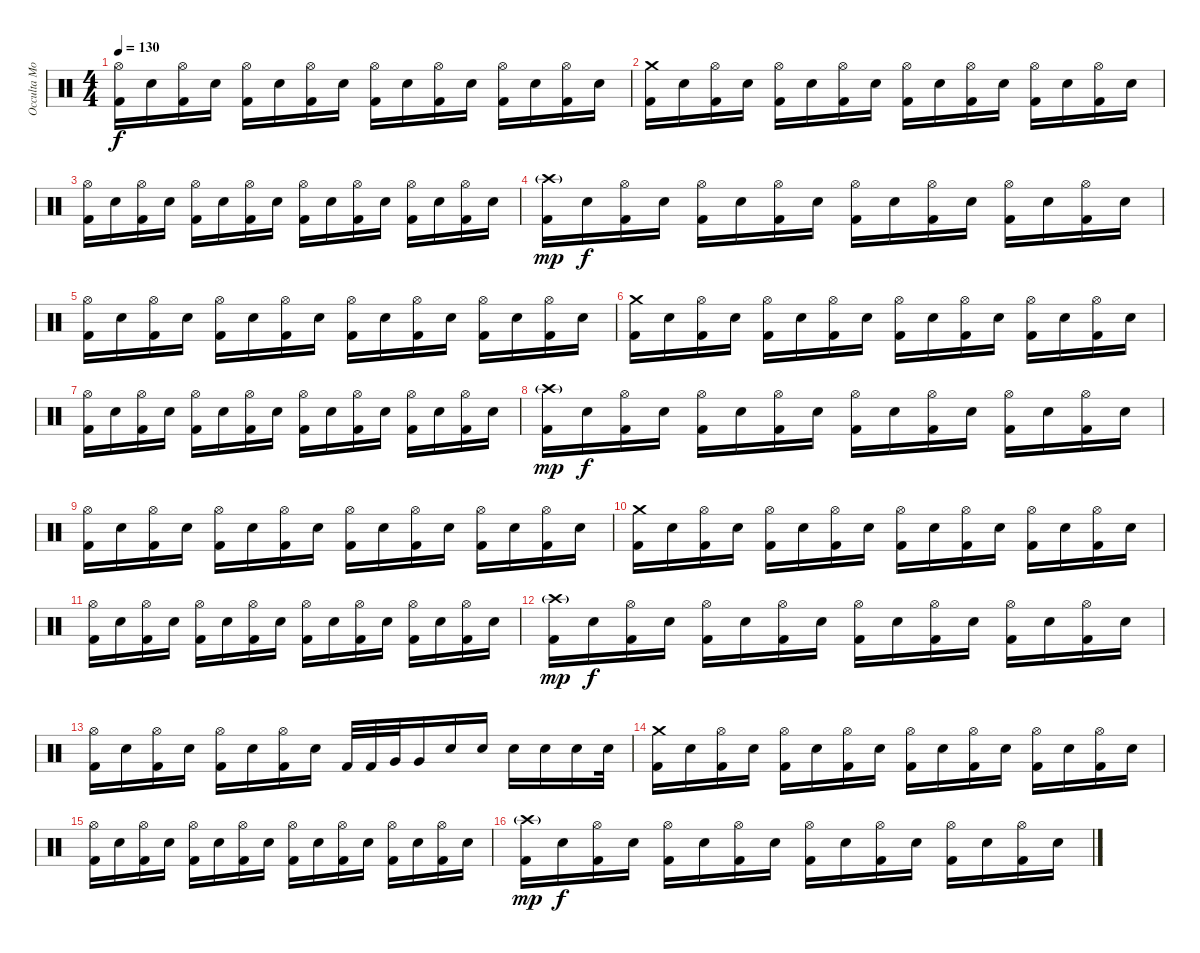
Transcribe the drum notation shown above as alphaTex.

\track ("Occulta Mors" "Occulta Mo") {instrument percussion}
\staff {score}
\articulation defaults
\ts (4 4)
\tempo 130
\clef neutral
\ks c
("Hi-Hat (open)" "Kick (hit) 2").16{dy f} "Snare (hit) 2".16 ("Hi-Hat (open)" "Kick (hit) 2").16 "Snare (hit) 2".16 ("Hi-Hat (open)" "Kick (hit) 2").16 "Snare (hit) 2".16 ("Hi-Hat (open)" "Kick (hit) 2").16 "Snare (hit) 2".16 ("Hi-Hat (open)" "Kick (hit) 2").16 "Snare (hit) 2".16 ("Hi-Hat (open)" "Kick (hit) 2").16 "Snare (hit) 2".16 ("Hi-Hat (open)" "Kick (hit) 2").16 "Snare (hit) 2".16 ("Hi-Hat (open)" "Kick (hit) 2").16 "Snare (hit) 2".16 |
("Crash medium (hit)" "Kick (hit) 2").16 "Snare (hit) 2".16 ("Hi-Hat (open)" "Kick (hit) 2").16 "Snare (hit) 2".16 ("Hi-Hat (open)" "Kick (hit) 2").16 "Snare (hit) 2".16 ("Hi-Hat (open)" "Kick (hit) 2").16 "Snare (hit) 2".16 ("Hi-Hat (open)" "Kick (hit) 2").16 "Snare (hit) 2".16 ("Hi-Hat (open)" "Kick (hit) 2").16 "Snare (hit) 2".16 ("Hi-Hat (open)" "Kick (hit) 2").16 "Snare (hit) 2".16 ("Hi-Hat (open)" "Kick (hit) 2").16 "Snare (hit) 2".16 |
("Hi-Hat (open)" "Kick (hit) 2").16 "Snare (hit) 2".16 ("Hi-Hat (open)" "Kick (hit) 2").16 "Snare (hit) 2".16 ("Hi-Hat (open)" "Kick (hit) 2").16 "Snare (hit) 2".16 ("Hi-Hat (open)" "Kick (hit) 2").16 "Snare (hit) 2".16 ("Hi-Hat (open)" "Kick (hit) 2").16 "Snare (hit) 2".16 ("Hi-Hat (open)" "Kick (hit) 2").16 "Snare (hit) 2".16 ("Hi-Hat (open)" "Kick (hit) 2").16 "Snare (hit) 2".16 ("Hi-Hat (open)" "Kick (hit) 2").16 "Snare (hit) 2".16 |
("Crash high (hit)"{g} "Kick (hit) 2").16{dy mp} "Snare (hit) 2".16{dy f} ("Hi-Hat (open)" "Kick (hit) 2").16 "Snare (hit) 2".16 ("Hi-Hat (open)" "Kick (hit) 2").16 "Snare (hit) 2".16 ("Hi-Hat (open)" "Kick (hit) 2").16 "Snare (hit) 2".16 ("Hi-Hat (open)" "Kick (hit) 2").16 "Snare (hit) 2".16 ("Hi-Hat (open)" "Kick (hit) 2").16 "Snare (hit) 2".16 ("Hi-Hat (open)" "Kick (hit) 2").16 "Snare (hit) 2".16 ("Hi-Hat (open)" "Kick (hit) 2").16 "Snare (hit) 2".16 |
("Hi-Hat (open)" "Kick (hit) 2").16 "Snare (hit) 2".16 ("Hi-Hat (open)" "Kick (hit) 2").16 "Snare (hit) 2".16 ("Hi-Hat (open)" "Kick (hit) 2").16 "Snare (hit) 2".16 ("Hi-Hat (open)" "Kick (hit) 2").16 "Snare (hit) 2".16 ("Hi-Hat (open)" "Kick (hit) 2").16 "Snare (hit) 2".16 ("Hi-Hat (open)" "Kick (hit) 2").16 "Snare (hit) 2".16 ("Hi-Hat (open)" "Kick (hit) 2").16 "Snare (hit) 2".16 ("Hi-Hat (open)" "Kick (hit) 2").16 "Snare (hit) 2".16 |
("Crash medium (hit)" "Kick (hit) 2").16 "Snare (hit) 2".16 ("Hi-Hat (open)" "Kick (hit) 2").16 "Snare (hit) 2".16 ("Hi-Hat (open)" "Kick (hit) 2").16 "Snare (hit) 2".16 ("Hi-Hat (open)" "Kick (hit) 2").16 "Snare (hit) 2".16 ("Hi-Hat (open)" "Kick (hit) 2").16 "Snare (hit) 2".16 ("Hi-Hat (open)" "Kick (hit) 2").16 "Snare (hit) 2".16 ("Hi-Hat (open)" "Kick (hit) 2").16 "Snare (hit) 2".16 ("Hi-Hat (open)" "Kick (hit) 2").16 "Snare (hit) 2".16 |
("Hi-Hat (open)" "Kick (hit) 2").16 "Snare (hit) 2".16 ("Hi-Hat (open)" "Kick (hit) 2").16 "Snare (hit) 2".16 ("Hi-Hat (open)" "Kick (hit) 2").16 "Snare (hit) 2".16 ("Hi-Hat (open)" "Kick (hit) 2").16 "Snare (hit) 2".16 ("Hi-Hat (open)" "Kick (hit) 2").16 "Snare (hit) 2".16 ("Hi-Hat (open)" "Kick (hit) 2").16 "Snare (hit) 2".16 ("Hi-Hat (open)" "Kick (hit) 2").16 "Snare (hit) 2".16 ("Hi-Hat (open)" "Kick (hit) 2").16 "Snare (hit) 2".16 |
("Crash high (hit)"{g} "Kick (hit) 2").16{dy mp} "Snare (hit) 2".16{dy f} ("Hi-Hat (open)" "Kick (hit) 2").16 "Snare (hit) 2".16 ("Hi-Hat (open)" "Kick (hit) 2").16 "Snare (hit) 2".16 ("Hi-Hat (open)" "Kick (hit) 2").16 "Snare (hit) 2".16 ("Hi-Hat (open)" "Kick (hit) 2").16 "Snare (hit) 2".16 ("Hi-Hat (open)" "Kick (hit) 2").16 "Snare (hit) 2".16 ("Hi-Hat (open)" "Kick (hit) 2").16 "Snare (hit) 2".16 ("Hi-Hat (open)" "Kick (hit) 2").16 "Snare (hit) 2".16 |
("Hi-Hat (open)" "Kick (hit) 2").16 "Snare (hit) 2".16 ("Hi-Hat (open)" "Kick (hit) 2").16 "Snare (hit) 2".16 ("Hi-Hat (open)" "Kick (hit) 2").16 "Snare (hit) 2".16 ("Hi-Hat (open)" "Kick (hit) 2").16 "Snare (hit) 2".16 ("Hi-Hat (open)" "Kick (hit) 2").16 "Snare (hit) 2".16 ("Hi-Hat (open)" "Kick (hit) 2").16 "Snare (hit) 2".16 ("Hi-Hat (open)" "Kick (hit) 2").16 "Snare (hit) 2".16 ("Hi-Hat (open)" "Kick (hit) 2").16 "Snare (hit) 2".16 |
("Crash medium (hit)" "Kick (hit) 2").16 "Snare (hit) 2".16 ("Hi-Hat (open)" "Kick (hit) 2").16 "Snare (hit) 2".16 ("Hi-Hat (open)" "Kick (hit) 2").16 "Snare (hit) 2".16 ("Hi-Hat (open)" "Kick (hit) 2").16 "Snare (hit) 2".16 ("Hi-Hat (open)" "Kick (hit) 2").16 "Snare (hit) 2".16 ("Hi-Hat (open)" "Kick (hit) 2").16 "Snare (hit) 2".16 ("Hi-Hat (open)" "Kick (hit) 2").16 "Snare (hit) 2".16 ("Hi-Hat (open)" "Kick (hit) 2").16 "Snare (hit) 2".16 |
("Hi-Hat (open)" "Kick (hit) 2").16 "Snare (hit) 2".16 ("Hi-Hat (open)" "Kick (hit) 2").16 "Snare (hit) 2".16 ("Hi-Hat (open)" "Kick (hit) 2").16 "Snare (hit) 2".16 ("Hi-Hat (open)" "Kick (hit) 2").16 "Snare (hit) 2".16 ("Hi-Hat (open)" "Kick (hit) 2").16 "Snare (hit) 2".16 ("Hi-Hat (open)" "Kick (hit) 2").16 "Snare (hit) 2".16 ("Hi-Hat (open)" "Kick (hit) 2").16 "Snare (hit) 2".16 ("Hi-Hat (open)" "Kick (hit) 2").16 "Snare (hit) 2".16 |
("Crash high (hit)"{g} "Kick (hit) 2").16{dy mp} "Snare (hit) 2".16{dy f} ("Hi-Hat (open)" "Kick (hit) 2").16 "Snare (hit) 2".16 ("Hi-Hat (open)" "Kick (hit) 2").16 "Snare (hit) 2".16 ("Hi-Hat (open)" "Kick (hit) 2").16 "Snare (hit) 2".16 ("Hi-Hat (open)" "Kick (hit) 2").16 "Snare (hit) 2".16 ("Hi-Hat (open)" "Kick (hit) 2").16 "Snare (hit) 2".16 ("Hi-Hat (open)" "Kick (hit) 2").16 "Snare (hit) 2".16 ("Hi-Hat (open)" "Kick (hit) 2").16 "Snare (hit) 2".16 |
("Hi-Hat (open)" "Kick (hit) 2").16 "Snare (hit) 2".16 ("Hi-Hat (open)" "Kick (hit) 2").16 "Snare (hit) 2".16 ("Hi-Hat (open)" "Kick (hit) 2").16 "Snare (hit) 2".16 ("Hi-Hat (open)" "Kick (hit) 2").16 "Snare (hit) 2".16 "Kick (hit) 2".32 "Kick (hit) 2".32 "Very Low Tom (hit)".32 "Very Low Tom (hit)".16 "Snare (hit) 2".16 "Snare (hit) 2".16 "Snare (hit) 2".16 "Snare (hit) 2".16 "Snare (hit) 2".16 "Snare (hit) 2".32 |
("Crash medium (hit)" "Kick (hit) 2").16 "Snare (hit) 2".16 ("Hi-Hat (open)" "Kick (hit) 2").16 "Snare (hit) 2".16 ("Hi-Hat (open)" "Kick (hit) 2").16 "Snare (hit) 2".16 ("Hi-Hat (open)" "Kick (hit) 2").16 "Snare (hit) 2".16 ("Hi-Hat (open)" "Kick (hit) 2").16 "Snare (hit) 2".16 ("Hi-Hat (open)" "Kick (hit) 2").16 "Snare (hit) 2".16 ("Hi-Hat (open)" "Kick (hit) 2").16 "Snare (hit) 2".16 ("Hi-Hat (open)" "Kick (hit) 2").16 "Snare (hit) 2".16 |
("Hi-Hat (open)" "Kick (hit) 2").16 "Snare (hit) 2".16 ("Hi-Hat (open)" "Kick (hit) 2").16 "Snare (hit) 2".16 ("Hi-Hat (open)" "Kick (hit) 2").16 "Snare (hit) 2".16 ("Hi-Hat (open)" "Kick (hit) 2").16 "Snare (hit) 2".16 ("Hi-Hat (open)" "Kick (hit) 2").16 "Snare (hit) 2".16 ("Hi-Hat (open)" "Kick (hit) 2").16 "Snare (hit) 2".16 ("Hi-Hat (open)" "Kick (hit) 2").16 "Snare (hit) 2".16 ("Hi-Hat (open)" "Kick (hit) 2").16 "Snare (hit) 2".16 |
("Crash high (hit)"{g} "Kick (hit) 2").16{dy mp} "Snare (hit) 2".16{dy f} ("Hi-Hat (open)" "Kick (hit) 2").16 "Snare (hit) 2".16 ("Hi-Hat (open)" "Kick (hit) 2").16 "Snare (hit) 2".16 ("Hi-Hat (open)" "Kick (hit) 2").16 "Snare (hit) 2".16 ("Hi-Hat (open)" "Kick (hit) 2").16 "Snare (hit) 2".16 ("Hi-Hat (open)" "Kick (hit) 2").16 "Snare (hit) 2".16 ("Hi-Hat (open)" "Kick (hit) 2").16 "Snare (hit) 2".16 ("Hi-Hat (open)" "Kick (hit) 2").16 "Snare (hit) 2".16
